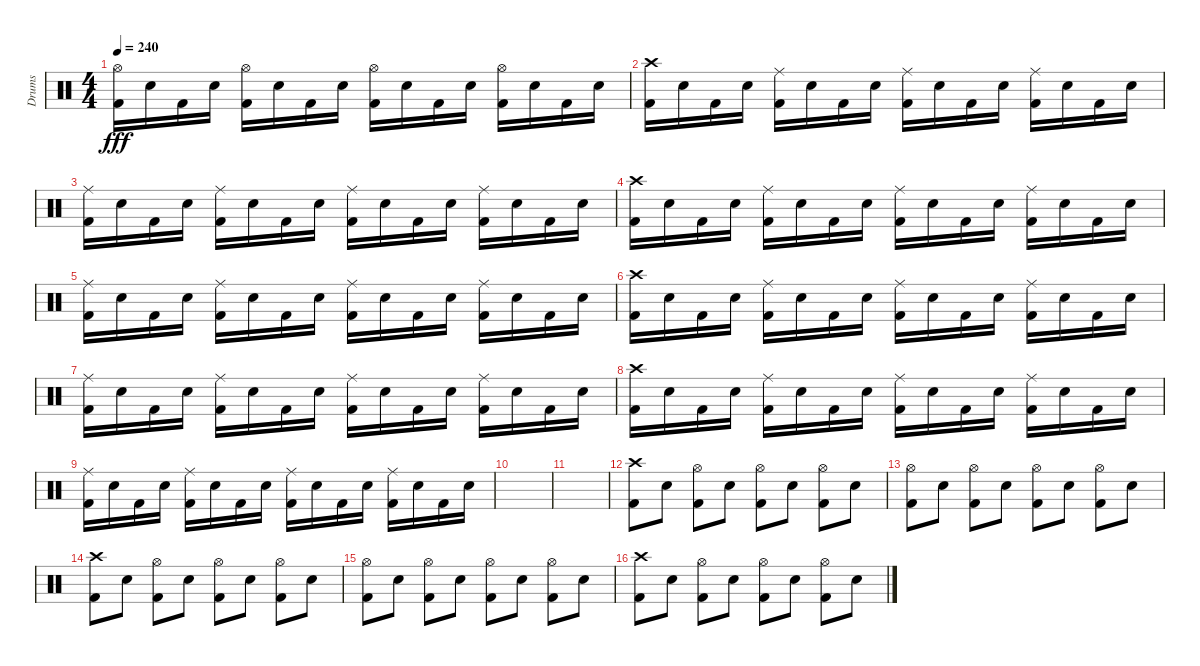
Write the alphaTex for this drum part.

\track ("Drums" "Drums") {instrument percussion}
\staff {score}
\articulation defaults
\ts (4 4)
\tempo 240
\clef neutral
\ks c
("Hi-Hat (open)" "Kick (hit) 2").16{dy fff} "Electric Snare (hit)".16 "Kick (hit) 2".16 "Electric Snare (hit)".16 ("Hi-Hat (open)" "Kick (hit) 2").16 "Electric Snare (hit)".16 "Kick (hit) 2".16 "Electric Snare (hit)".16 ("Hi-Hat (open)" "Kick (hit) 2").16 "Electric Snare (hit)".16 "Kick (hit) 2".16 "Electric Snare (hit)".16 ("Hi-Hat (open)" "Kick (hit) 2").16 "Electric Snare (hit)".16 "Kick (hit) 2".16 "Electric Snare (hit)".16 |
("Crash high (hit)" "Kick (hit) 2").16 "Electric Snare (hit)".16 "Kick (hit) 2".16 "Electric Snare (hit)".16 ("Ride (middle)" "Kick (hit) 2").16 "Electric Snare (hit)".16 "Kick (hit) 2".16 "Electric Snare (hit)".16 ("Ride (middle)" "Kick (hit) 2").16 "Electric Snare (hit)".16 "Kick (hit) 2".16 "Electric Snare (hit)".16 ("Ride (middle)" "Kick (hit) 2").16 "Electric Snare (hit)".16 "Kick (hit) 2".16 "Electric Snare (hit)".16 |
("Ride (middle)" "Kick (hit) 2").16 "Electric Snare (hit)".16 "Kick (hit) 2".16 "Electric Snare (hit)".16 ("Ride (middle)" "Kick (hit) 2").16 "Electric Snare (hit)".16 "Kick (hit) 2".16 "Electric Snare (hit)".16 ("Ride (middle)" "Kick (hit) 2").16 "Electric Snare (hit)".16 "Kick (hit) 2".16 "Electric Snare (hit)".16 ("Ride (middle)" "Kick (hit) 2").16 "Electric Snare (hit)".16 "Kick (hit) 2".16 "Electric Snare (hit)".16 |
("Crash high (hit)" "Kick (hit) 2").16 "Electric Snare (hit)".16 "Kick (hit) 2".16 "Electric Snare (hit)".16 ("Ride (middle)" "Kick (hit) 2").16 "Electric Snare (hit)".16 "Kick (hit) 2".16 "Electric Snare (hit)".16 ("Ride (middle)" "Kick (hit) 2").16 "Electric Snare (hit)".16 "Kick (hit) 2".16 "Electric Snare (hit)".16 ("Ride (middle)" "Kick (hit) 2").16 "Electric Snare (hit)".16 "Kick (hit) 2".16 "Electric Snare (hit)".16 |
("Ride (middle)" "Kick (hit) 2").16 "Electric Snare (hit)".16 "Kick (hit) 2".16 "Electric Snare (hit)".16 ("Ride (middle)" "Kick (hit) 2").16 "Electric Snare (hit)".16 "Kick (hit) 2".16 "Electric Snare (hit)".16 ("Ride (middle)" "Kick (hit) 2").16 "Electric Snare (hit)".16 "Kick (hit) 2".16 "Electric Snare (hit)".16 ("Ride (middle)" "Kick (hit) 2").16 "Electric Snare (hit)".16 "Kick (hit) 2".16 "Electric Snare (hit)".16 |
("Crash high (hit)" "Kick (hit) 2").16 "Electric Snare (hit)".16 "Kick (hit) 2".16 "Electric Snare (hit)".16 ("Ride (middle)" "Kick (hit) 2").16 "Electric Snare (hit)".16 "Kick (hit) 2".16 "Electric Snare (hit)".16 ("Ride (middle)" "Kick (hit) 2").16 "Electric Snare (hit)".16 "Kick (hit) 2".16 "Electric Snare (hit)".16 ("Ride (middle)" "Kick (hit) 2").16 "Electric Snare (hit)".16 "Kick (hit) 2".16 "Electric Snare (hit)".16 |
("Ride (middle)" "Kick (hit) 2").16 "Electric Snare (hit)".16 "Kick (hit) 2".16 "Electric Snare (hit)".16 ("Ride (middle)" "Kick (hit) 2").16 "Electric Snare (hit)".16 "Kick (hit) 2".16 "Electric Snare (hit)".16 ("Ride (middle)" "Kick (hit) 2").16 "Electric Snare (hit)".16 "Kick (hit) 2".16 "Electric Snare (hit)".16 ("Ride (middle)" "Kick (hit) 2").16 "Electric Snare (hit)".16 "Kick (hit) 2".16 "Electric Snare (hit)".16 |
("Crash high (hit)" "Kick (hit) 2").16 "Electric Snare (hit)".16 "Kick (hit) 2".16 "Electric Snare (hit)".16 ("Ride (middle)" "Kick (hit) 2").16 "Electric Snare (hit)".16 "Kick (hit) 2".16 "Electric Snare (hit)".16 ("Ride (middle)" "Kick (hit) 2").16 "Electric Snare (hit)".16 "Kick (hit) 2".16 "Electric Snare (hit)".16 ("Ride (middle)" "Kick (hit) 2").16 "Electric Snare (hit)".16 "Kick (hit) 2".16 "Electric Snare (hit)".16 |
("Ride (middle)" "Kick (hit) 2").16 "Electric Snare (hit)".16 "Kick (hit) 2".16 "Electric Snare (hit)".16 ("Ride (middle)" "Kick (hit) 2").16 "Electric Snare (hit)".16 "Kick (hit) 2".16 "Electric Snare (hit)".16 ("Ride (middle)" "Kick (hit) 2").16 "Electric Snare (hit)".16 "Kick (hit) 2".16 "Electric Snare (hit)".16 ("Ride (middle)" "Kick (hit) 2").16 "Electric Snare (hit)".16 "Kick (hit) 2".16 "Electric Snare (hit)".16 |
|
|
("Crash high (hit)" "Kick (hit) 2").8 "Electric Snare (hit)".8 ("Hi-Hat (open)" "Kick (hit) 2").8 "Electric Snare (hit)".8 ("Hi-Hat (open)" "Kick (hit) 2").8 "Electric Snare (hit)".8 ("Hi-Hat (open)" "Kick (hit) 2").8 "Electric Snare (hit)".8 |
("Hi-Hat (open)" "Kick (hit) 2").8 "Electric Snare (hit)".8 ("Hi-Hat (open)" "Kick (hit) 2").8 "Electric Snare (hit)".8 ("Hi-Hat (open)" "Kick (hit) 2").8 "Electric Snare (hit)".8 ("Hi-Hat (open)" "Kick (hit) 2").8 "Electric Snare (hit)".8 |
("Crash high (hit)" "Kick (hit) 2").8 "Electric Snare (hit)".8 ("Hi-Hat (open)" "Kick (hit) 2").8 "Electric Snare (hit)".8 ("Hi-Hat (open)" "Kick (hit) 2").8 "Electric Snare (hit)".8 ("Hi-Hat (open)" "Kick (hit) 2").8 "Electric Snare (hit)".8 |
("Hi-Hat (open)" "Kick (hit) 2").8 "Electric Snare (hit)".8 ("Hi-Hat (open)" "Kick (hit) 2").8 "Electric Snare (hit)".8 ("Hi-Hat (open)" "Kick (hit) 2").8 "Electric Snare (hit)".8 ("Hi-Hat (open)" "Kick (hit) 2").8 "Electric Snare (hit)".8 |
("Crash high (hit)" "Kick (hit) 2").8 "Electric Snare (hit)".8 ("Hi-Hat (open)" "Kick (hit) 2").8 "Electric Snare (hit)".8 ("Hi-Hat (open)" "Kick (hit) 2").8 "Electric Snare (hit)".8 ("Hi-Hat (open)" "Kick (hit) 2").8 "Electric Snare (hit)".8
